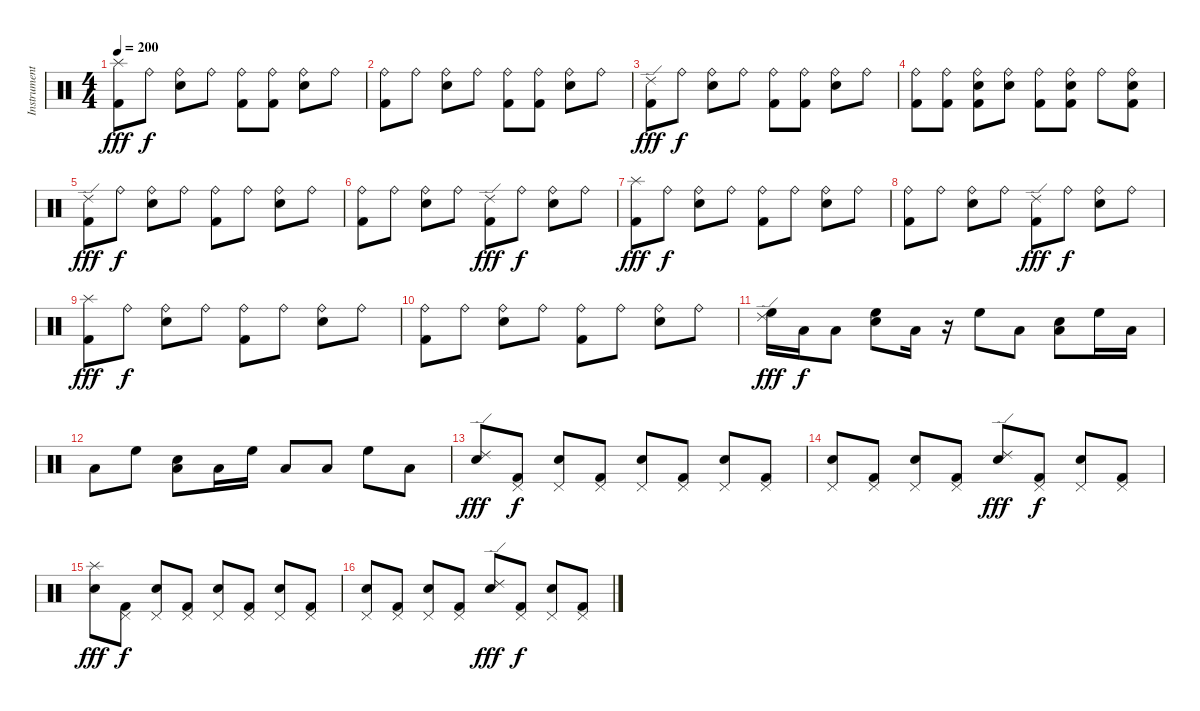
\track ("Instrument 03" "Instrument") {instrument percussion}
\staff {score}
\articulation defaults
\ts (4 4)
\tempo 200
\clef neutral
\ks c
("Kick (hit) 2" "Splash (hit)").8{dy fff} "Ride (bell)".8{dy f} ("Snare (hit) 2" "Ride (bell)").8 "Ride (bell)".8 ("Kick (hit) 2" "Ride (bell)").8 ("Kick (hit) 2" "Ride (bell)").8 ("Snare (hit) 2" "Ride (bell)").8 "Ride (bell)".8 |
("Kick (hit) 2" "Ride (bell)").8 "Ride (bell)".8 ("Snare (hit) 2" "Ride (bell)").8 "Ride (bell)".8 ("Kick (hit) 2" "Ride (bell)").8 ("Kick (hit) 2" "Ride (bell)").8 ("Snare (hit) 2" "Ride (bell)").8 "Ride (bell)".8 |
("Kick (hit) 2" "Ride (edge) 2").8{dy fff} "Ride (bell)".8{dy f} ("Snare (hit) 2" "Ride (bell)").8 "Ride (bell)".8 ("Kick (hit) 2" "Ride (bell)").8 ("Kick (hit) 2" "Ride (bell)").8 ("Snare (hit) 2" "Ride (bell)").8 "Ride (bell)".8 |
("Kick (hit) 2" "Ride (bell)").8 ("Kick (hit) 2" "Ride (bell)").8 ("Kick (hit) 2" "Snare (hit) 2" "Ride (bell)").8 ("Snare (hit) 2" "Ride (bell)").8 ("Kick (hit) 2" "Ride (bell)").8 ("Kick (hit) 2" "Snare (hit) 2" "Ride (bell)").8 "Ride (bell)".8 ("Kick (hit) 2" "Snare (hit) 2" "Ride (bell)").8 |
("Kick (hit) 2" "Ride (edge) 2").8{dy fff} "Ride (bell)".8{dy f} ("Snare (hit) 2" "Ride (bell)").8 "Ride (bell)".8 ("Kick (hit) 2" "Ride (bell)").8 "Ride (bell)".8 ("Snare (hit) 2" "Ride (bell)").8 "Ride (bell)".8 |
("Kick (hit) 2" "Ride (bell)").8 "Ride (bell)".8 ("Snare (hit) 2" "Ride (bell)").8 "Ride (bell)".8 ("Kick (hit) 2" "Ride (edge) 2").8{dy fff} "Ride (bell)".8{dy f} ("Snare (hit) 2" "Ride (bell)").8 "Ride (bell)".8 |
("Kick (hit) 2" "Splash (hit)").8{dy fff} "Ride (bell)".8{dy f} ("Snare (hit) 2" "Ride (bell)").8 "Ride (bell)".8 ("Kick (hit) 2" "Ride (bell)").8 "Ride (bell)".8 ("Snare (hit) 2" "Ride (bell)").8 "Ride (bell)".8 |
("Kick (hit) 2" "Ride (bell)").8 "Ride (bell)".8 ("Snare (hit) 2" "Ride (bell)").8 "Ride (bell)".8 ("Kick (hit) 2" "Ride (edge) 2").8{dy fff} "Ride (bell)".8{dy f} ("Snare (hit) 2" "Ride (bell)").8 "Ride (bell)".8 |
("Kick (hit) 2" "Splash (hit)").8{dy fff} "Ride (bell)".8{dy f} ("Snare (hit) 2" "Ride (bell)").8 "Ride (bell)".8 ("Kick (hit) 2" "Ride (bell)").8 "Ride (bell)".8 ("Snare (hit) 2" "Ride (bell)").8 "Ride (bell)".8 |
("Kick (hit) 2" "Ride (bell)").8 "Ride (bell)".8 ("Snare (hit) 2" "Ride (bell)").8 "Ride (bell)".8 ("Kick (hit) 2" "Ride (bell)").8 "Ride (bell)".8 ("Snare (hit) 2" "Ride (bell)").8 "Ride (bell)".8 |
("High Floor Tom (hit)" "Ride (edge) 2").16{dy fff} "Low Tom (hit)".16{dy f} "Low Floor Tom (hit)".8 ("Snare (hit) 2" "High Floor Tom (hit)").8 "Low Tom (hit)".16 r.16 "High Floor Tom (hit)".8 "Low Tom (hit)".8 ("Snare (hit) 2" "Low Floor Tom (hit)").8 "High Floor Tom (hit)".16 "Low Tom (hit)".16 |
"Low Floor Tom (hit)".8 "High Floor Tom (hit)".8 ("Snare (hit) 2" "Low Tom (hit)").8 "Low Floor Tom (hit)".16 "High Floor Tom (hit)".16 "Low Tom (hit)".8 "Low Floor Tom (hit)".8 "High Floor Tom (hit)".8 "Low Tom (hit)".8 |
("Snare (hit) 2" "Ride (edge) 2").8{dy fff} ("Kick (hit) 2" "Pedal Hi-Hat (hit)").8{dy f} ("Snare (hit) 2" "Pedal Hi-Hat (hit)").8 ("Kick (hit) 2" "Pedal Hi-Hat (hit)").8 ("Snare (hit) 2" "Pedal Hi-Hat (hit)").8 ("Kick (hit) 2" "Pedal Hi-Hat (hit)").8 ("Snare (hit) 2" "Pedal Hi-Hat (hit)").8 ("Kick (hit) 2" "Pedal Hi-Hat (hit)").8 |
("Snare (hit) 2" "Pedal Hi-Hat (hit)").8 ("Kick (hit) 2" "Pedal Hi-Hat (hit)").8 ("Snare (hit) 2" "Pedal Hi-Hat (hit)").8 ("Kick (hit) 2" "Pedal Hi-Hat (hit)").8 ("Snare (hit) 2" "Ride (edge) 2").8{dy fff} ("Kick (hit) 2" "Pedal Hi-Hat (hit)").8{dy f} ("Snare (hit) 2" "Pedal Hi-Hat (hit)").8 ("Kick (hit) 2" "Pedal Hi-Hat (hit)").8 |
("Snare (hit) 2" "Splash (hit)").8{dy fff} ("Kick (hit) 2" "Pedal Hi-Hat (hit)").8{dy f} ("Snare (hit) 2" "Pedal Hi-Hat (hit)").8 ("Kick (hit) 2" "Pedal Hi-Hat (hit)").8 ("Snare (hit) 2" "Pedal Hi-Hat (hit)").8 ("Kick (hit) 2" "Pedal Hi-Hat (hit)").8 ("Snare (hit) 2" "Pedal Hi-Hat (hit)").8 ("Kick (hit) 2" "Pedal Hi-Hat (hit)").8 |
("Snare (hit) 2" "Pedal Hi-Hat (hit)").8 ("Kick (hit) 2" "Pedal Hi-Hat (hit)").8 ("Snare (hit) 2" "Pedal Hi-Hat (hit)").8 ("Kick (hit) 2" "Pedal Hi-Hat (hit)").8 ("Snare (hit) 2" "Ride (edge) 2").8{dy fff} ("Kick (hit) 2" "Pedal Hi-Hat (hit)").8{dy f} ("Snare (hit) 2" "Pedal Hi-Hat (hit)").8 ("Kick (hit) 2" "Pedal Hi-Hat (hit)").8
